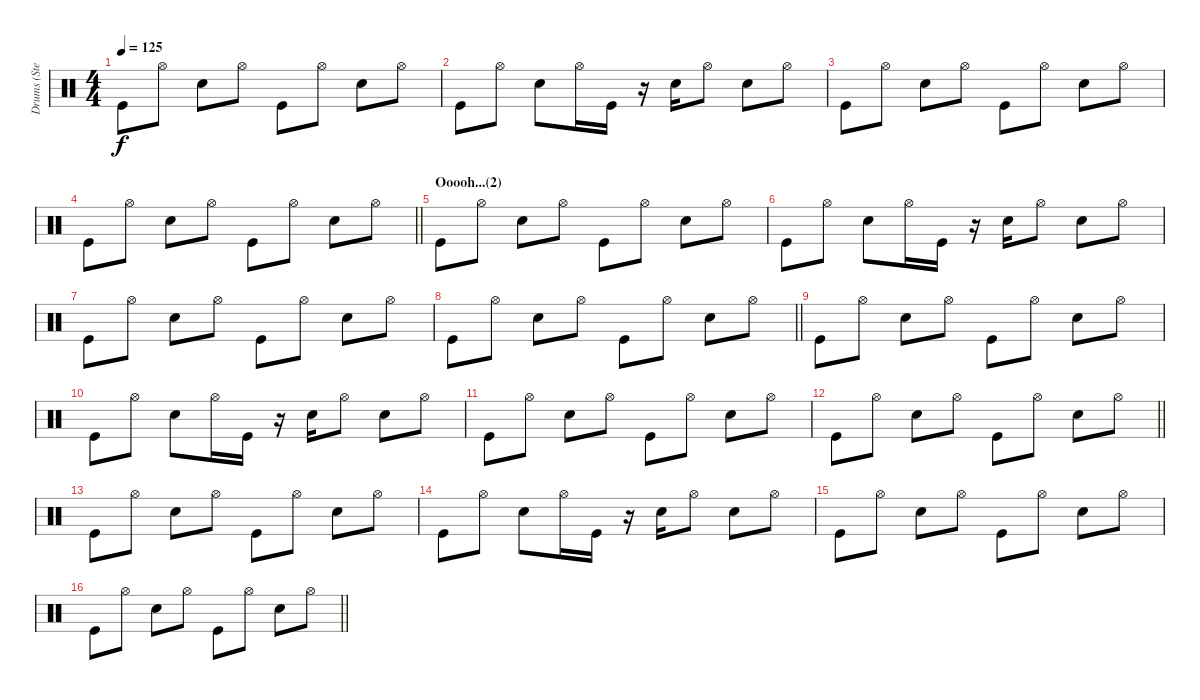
\track ("Drums (Steve)" "Drums (Ste") {instrument percussion}
\staff {score}
\articulation defaults
\ts (4 4)
\tempo 125
\clef neutral
\ks c "Kick (hit)".8{dy f} "Hi-Hat (open)".8 "Electric Snare (hit)".8 "Hi-Hat (open)".8 "Kick (hit)".8 "Hi-Hat (open)".8 "Electric Snare (hit)".8 "Hi-Hat (open)".8
|
"Kick (hit)".8 "Hi-Hat (open)".8 "Electric Snare (hit)".8 "Hi-Hat (open)".16 "Kick (hit)".16 r.16 "Electric Snare (hit)".16 "Hi-Hat (open)".8 "Electric Snare (hit)".8 "Hi-Hat (open)".8 |
"Kick (hit)".8 "Hi-Hat (open)".8 "Electric Snare (hit)".8 "Hi-Hat (open)".8 "Kick (hit)".8 "Hi-Hat (open)".8 "Electric Snare (hit)".8 "Hi-Hat (open)".8 |
\barLineRight lightlight "Kick (hit)".8 "Hi-Hat (open)".8 "Electric Snare (hit)".8 "Hi-Hat (open)".8 "Kick (hit)".8 "Hi-Hat (open)".8 "Electric Snare (hit)".8 "Hi-Hat (open)".8
|
\section ("" "Ooooh...(2)")
"Kick (hit)".8 "Hi-Hat (open)".8 "Electric Snare (hit)".8 "Hi-Hat (open)".8 "Kick (hit)".8 "Hi-Hat (open)".8 "Electric Snare (hit)".8 "Hi-Hat (open)".8 |
"Kick (hit)".8 "Hi-Hat (open)".8 "Electric Snare (hit)".8 "Hi-Hat (open)".16 "Kick (hit)".16 r.16 "Electric Snare (hit)".16 "Hi-Hat (open)".8 "Electric Snare (hit)".8 "Hi-Hat (open)".8 |
"Kick (hit)".8 "Hi-Hat (open)".8 "Electric Snare (hit)".8 "Hi-Hat (open)".8 "Kick (hit)".8 "Hi-Hat (open)".8 "Electric Snare (hit)".8 "Hi-Hat (open)".8 |
\barLineRight lightlight "Kick (hit)".8 "Hi-Hat (open)".8 "Electric Snare (hit)".8 "Hi-Hat (open)".8 "Kick (hit)".8 "Hi-Hat (open)".8 "Electric Snare (hit)".8 "Hi-Hat (open)".8
|
"Kick (hit)".8 "Hi-Hat (open)".8 "Electric Snare (hit)".8 "Hi-Hat (open)".8 "Kick (hit)".8 "Hi-Hat (open)".8 "Electric Snare (hit)".8 "Hi-Hat (open)".8 |
"Kick (hit)".8 "Hi-Hat (open)".8 "Electric Snare (hit)".8 "Hi-Hat (open)".16 "Kick (hit)".16 r.16 "Electric Snare (hit)".16 "Hi-Hat (open)".8 "Electric Snare (hit)".8 "Hi-Hat (open)".8 |
"Kick (hit)".8 "Hi-Hat (open)".8 "Electric Snare (hit)".8 "Hi-Hat (open)".8 "Kick (hit)".8 "Hi-Hat (open)".8 "Electric Snare (hit)".8 "Hi-Hat (open)".8 |
\barLineRight lightlight "Kick (hit)".8 "Hi-Hat (open)".8 "Electric Snare (hit)".8 "Hi-Hat (open)".8 "Kick (hit)".8 "Hi-Hat (open)".8 "Electric Snare (hit)".8 "Hi-Hat (open)".8
|
"Kick (hit)".8 "Hi-Hat (open)".8 "Electric Snare (hit)".8 "Hi-Hat (open)".8 "Kick (hit)".8 "Hi-Hat (open)".8 "Electric Snare (hit)".8 "Hi-Hat (open)".8 |
"Kick (hit)".8 "Hi-Hat (open)".8 "Electric Snare (hit)".8 "Hi-Hat (open)".16 "Kick (hit)".16 r.16 "Electric Snare (hit)".16 "Hi-Hat (open)".8 "Electric Snare (hit)".8 "Hi-Hat (open)".8 |
"Kick (hit)".8 "Hi-Hat (open)".8 "Electric Snare (hit)".8 "Hi-Hat (open)".8 "Kick (hit)".8 "Hi-Hat (open)".8 "Electric Snare (hit)".8 "Hi-Hat (open)".8 |
\barLineRight lightlight "Kick (hit)".8 "Hi-Hat (open)".8 "Electric Snare (hit)".8 "Hi-Hat (open)".8 "Kick (hit)".8 "Hi-Hat (open)".8 "Electric Snare (hit)".8 "Hi-Hat (open)".8
